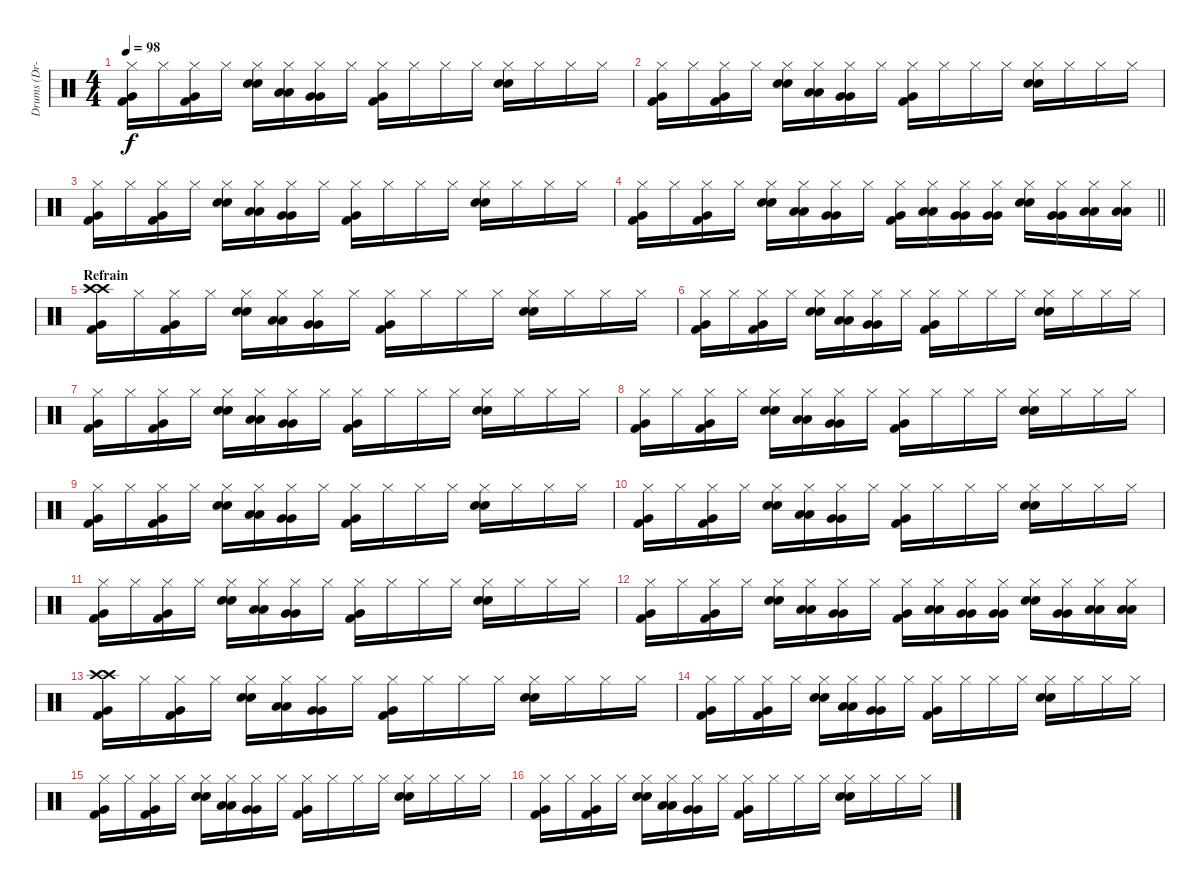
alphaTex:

\track ("Drums (Dr-0)" "Drums (Dr-") {instrument percussion}
\staff {score}
\articulation defaults
\ts (4 4)
\tempo 98
\clef neutral
\ks c
("Hi-Hat (closed)" "Very Low Tom (hit)" "Kick (hit) 2").16{dy f} "Hi-Hat (closed)".16 ("Hi-Hat (closed)" "Very Low Tom (hit)" "Kick (hit) 2").16 "Hi-Hat (closed)".16 ("Hi-Hat (closed)" "Electric Snare (hit)" "Snare (hit) 2").16 ("Hi-Hat (closed)" "Low Tom (hit)" "Low Tom (hit)").16 ("Hi-Hat (closed)" "Very Low Tom (hit)" "Very Low Tom (hit)").16 "Hi-Hat (closed)".16 ("Hi-Hat (closed)" "Very Low Tom (hit)" "Kick (hit) 2").16 "Hi-Hat (closed)".16 "Hi-Hat (closed)".16 "Hi-Hat (closed)".16 ("Hi-Hat (closed)" "Electric Snare (hit)" "Snare (hit) 2").16 "Hi-Hat (closed)".16 "Hi-Hat (closed)".16 "Hi-Hat (closed)".16 |
("Hi-Hat (closed)" "Very Low Tom (hit)" "Kick (hit) 2").16 "Hi-Hat (closed)".16 ("Hi-Hat (closed)" "Very Low Tom (hit)" "Kick (hit) 2").16 "Hi-Hat (closed)".16 ("Hi-Hat (closed)" "Electric Snare (hit)" "Snare (hit) 2").16 ("Hi-Hat (closed)" "Low Tom (hit)" "Low Tom (hit)").16 ("Hi-Hat (closed)" "Very Low Tom (hit)" "Very Low Tom (hit)").16 "Hi-Hat (closed)".16 ("Hi-Hat (closed)" "Very Low Tom (hit)" "Kick (hit) 2").16 "Hi-Hat (closed)".16 "Hi-Hat (closed)".16 "Hi-Hat (closed)".16 ("Hi-Hat (closed)" "Electric Snare (hit)" "Snare (hit) 2").16 "Hi-Hat (closed)".16 "Hi-Hat (closed)".16 "Hi-Hat (closed)".16 |
("Hi-Hat (closed)" "Very Low Tom (hit)" "Kick (hit) 2").16 "Hi-Hat (closed)".16 ("Hi-Hat (closed)" "Very Low Tom (hit)" "Kick (hit) 2").16 "Hi-Hat (closed)".16 ("Hi-Hat (closed)" "Electric Snare (hit)" "Snare (hit) 2").16 ("Hi-Hat (closed)" "Low Tom (hit)" "Low Tom (hit)").16 ("Hi-Hat (closed)" "Very Low Tom (hit)" "Very Low Tom (hit)").16 "Hi-Hat (closed)".16 ("Hi-Hat (closed)" "Very Low Tom (hit)" "Kick (hit) 2").16 "Hi-Hat (closed)".16 "Hi-Hat (closed)".16 "Hi-Hat (closed)".16 ("Hi-Hat (closed)" "Electric Snare (hit)" "Snare (hit) 2").16 "Hi-Hat (closed)".16 "Hi-Hat (closed)".16 "Hi-Hat (closed)".16 |
\barLineRight lightlight
("Hi-Hat (closed)" "Very Low Tom (hit)" "Kick (hit) 2").16 "Hi-Hat (closed)".16 ("Hi-Hat (closed)" "Very Low Tom (hit)" "Kick (hit) 2").16 "Hi-Hat (closed)".16 ("Hi-Hat (closed)" "Electric Snare (hit)" "Snare (hit) 2").16 ("Hi-Hat (closed)" "Low Tom (hit)" "Low Tom (hit)").16 ("Hi-Hat (closed)" "Very Low Tom (hit)" "Very Low Tom (hit)").16 "Hi-Hat (closed)".16 ("Hi-Hat (closed)" "Very Low Tom (hit)" "Kick (hit) 2").16 ("Hi-Hat (closed)" "Low Tom (hit)" "Low Tom (hit)").16 ("Hi-Hat (closed)" "Very Low Tom (hit)" "Very Low Tom (hit)").16 ("Hi-Hat (closed)" "Very Low Tom (hit)" "Very Low Tom (hit)").16 ("Hi-Hat (closed)" "Electric Snare (hit)" "Snare (hit) 2").16 ("Hi-Hat (closed)" "Very Low Tom (hit)" "Very Low Tom (hit)").16 ("Hi-Hat (closed)" "Low Floor Tom (hit)" "Low Floor Tom (hit)").16 ("Hi-Hat (closed)" "Low Floor Tom (hit)" "Low Floor Tom (hit)").16 |
\section ("" "Refrain")
("Crash high (hit)" "Crash high (hit)" "Very Low Tom (hit)" "Kick (hit) 2").16 "Hi-Hat (closed)".16 ("Hi-Hat (closed)" "Very Low Tom (hit)" "Kick (hit) 2").16 "Hi-Hat (closed)".16 ("Hi-Hat (closed)" "Electric Snare (hit)" "Snare (hit) 2").16 ("Hi-Hat (closed)" "Low Tom (hit)" "Low Tom (hit)").16 ("Hi-Hat (closed)" "Very Low Tom (hit)" "Very Low Tom (hit)").16 "Hi-Hat (closed)".16 ("Hi-Hat (closed)" "Very Low Tom (hit)" "Kick (hit) 2").16 "Hi-Hat (closed)".16 "Hi-Hat (closed)".16 "Hi-Hat (closed)".16 ("Hi-Hat (closed)" "Electric Snare (hit)" "Snare (hit) 2").16 "Hi-Hat (closed)".16 "Hi-Hat (closed)".16 "Hi-Hat (closed)".16 |
("Hi-Hat (closed)" "Very Low Tom (hit)" "Kick (hit) 2").16 "Hi-Hat (closed)".16 ("Hi-Hat (closed)" "Very Low Tom (hit)" "Kick (hit) 2").16 "Hi-Hat (closed)".16 ("Hi-Hat (closed)" "Electric Snare (hit)" "Snare (hit) 2").16 ("Hi-Hat (closed)" "Low Tom (hit)" "Low Tom (hit)").16 ("Hi-Hat (closed)" "Very Low Tom (hit)" "Very Low Tom (hit)").16 "Hi-Hat (closed)".16 ("Hi-Hat (closed)" "Very Low Tom (hit)" "Kick (hit) 2").16 "Hi-Hat (closed)".16 "Hi-Hat (closed)".16 "Hi-Hat (closed)".16 ("Hi-Hat (closed)" "Electric Snare (hit)" "Snare (hit) 2").16 "Hi-Hat (closed)".16 "Hi-Hat (closed)".16 "Hi-Hat (closed)".16 |
("Hi-Hat (closed)" "Very Low Tom (hit)" "Kick (hit) 2").16 "Hi-Hat (closed)".16 ("Hi-Hat (closed)" "Very Low Tom (hit)" "Kick (hit) 2").16 "Hi-Hat (closed)".16 ("Hi-Hat (closed)" "Electric Snare (hit)" "Snare (hit) 2").16 ("Hi-Hat (closed)" "Low Tom (hit)" "Low Tom (hit)").16 ("Hi-Hat (closed)" "Very Low Tom (hit)" "Very Low Tom (hit)").16 "Hi-Hat (closed)".16 ("Hi-Hat (closed)" "Very Low Tom (hit)" "Kick (hit) 2").16 "Hi-Hat (closed)".16 "Hi-Hat (closed)".16 "Hi-Hat (closed)".16 ("Hi-Hat (closed)" "Electric Snare (hit)" "Snare (hit) 2").16 "Hi-Hat (closed)".16 "Hi-Hat (closed)".16 "Hi-Hat (closed)".16 |
("Hi-Hat (closed)" "Very Low Tom (hit)" "Kick (hit) 2").16 "Hi-Hat (closed)".16 ("Hi-Hat (closed)" "Very Low Tom (hit)" "Kick (hit) 2").16 "Hi-Hat (closed)".16 ("Hi-Hat (closed)" "Electric Snare (hit)" "Snare (hit) 2").16 ("Hi-Hat (closed)" "Low Tom (hit)" "Low Tom (hit)").16 ("Hi-Hat (closed)" "Very Low Tom (hit)" "Very Low Tom (hit)").16 "Hi-Hat (closed)".16 ("Hi-Hat (closed)" "Very Low Tom (hit)" "Kick (hit) 2").16 "Hi-Hat (closed)".16 "Hi-Hat (closed)".16 "Hi-Hat (closed)".16 ("Hi-Hat (closed)" "Electric Snare (hit)" "Snare (hit) 2").16 "Hi-Hat (closed)".16 "Hi-Hat (closed)".16 "Hi-Hat (closed)".16 |
("Hi-Hat (closed)" "Very Low Tom (hit)" "Kick (hit) 2").16 "Hi-Hat (closed)".16 ("Hi-Hat (closed)" "Very Low Tom (hit)" "Kick (hit) 2").16 "Hi-Hat (closed)".16 ("Hi-Hat (closed)" "Electric Snare (hit)" "Snare (hit) 2").16 ("Hi-Hat (closed)" "Low Tom (hit)" "Low Tom (hit)").16 ("Hi-Hat (closed)" "Very Low Tom (hit)" "Very Low Tom (hit)").16 "Hi-Hat (closed)".16 ("Hi-Hat (closed)" "Very Low Tom (hit)" "Kick (hit) 2").16 "Hi-Hat (closed)".16 "Hi-Hat (closed)".16 "Hi-Hat (closed)".16 ("Hi-Hat (closed)" "Electric Snare (hit)" "Snare (hit) 2").16 "Hi-Hat (closed)".16 "Hi-Hat (closed)".16 "Hi-Hat (closed)".16 |
("Hi-Hat (closed)" "Very Low Tom (hit)" "Kick (hit) 2").16 "Hi-Hat (closed)".16 ("Hi-Hat (closed)" "Very Low Tom (hit)" "Kick (hit) 2").16 "Hi-Hat (closed)".16 ("Hi-Hat (closed)" "Electric Snare (hit)" "Snare (hit) 2").16 ("Hi-Hat (closed)" "Low Tom (hit)" "Low Tom (hit)").16 ("Hi-Hat (closed)" "Very Low Tom (hit)" "Very Low Tom (hit)").16 "Hi-Hat (closed)".16 ("Hi-Hat (closed)" "Very Low Tom (hit)" "Kick (hit) 2").16 "Hi-Hat (closed)".16 "Hi-Hat (closed)".16 "Hi-Hat (closed)".16 ("Hi-Hat (closed)" "Electric Snare (hit)" "Snare (hit) 2").16 "Hi-Hat (closed)".16 "Hi-Hat (closed)".16 "Hi-Hat (closed)".16 |
("Hi-Hat (closed)" "Very Low Tom (hit)" "Kick (hit) 2").16 "Hi-Hat (closed)".16 ("Hi-Hat (closed)" "Very Low Tom (hit)" "Kick (hit) 2").16 "Hi-Hat (closed)".16 ("Hi-Hat (closed)" "Electric Snare (hit)" "Snare (hit) 2").16 ("Hi-Hat (closed)" "Low Tom (hit)" "Low Tom (hit)").16 ("Hi-Hat (closed)" "Very Low Tom (hit)" "Very Low Tom (hit)").16 "Hi-Hat (closed)".16 ("Hi-Hat (closed)" "Very Low Tom (hit)" "Kick (hit) 2").16 "Hi-Hat (closed)".16 "Hi-Hat (closed)".16 "Hi-Hat (closed)".16 ("Hi-Hat (closed)" "Electric Snare (hit)" "Snare (hit) 2").16 "Hi-Hat (closed)".16 "Hi-Hat (closed)".16 "Hi-Hat (closed)".16 |
("Hi-Hat (closed)" "Very Low Tom (hit)" "Kick (hit) 2").16 "Hi-Hat (closed)".16 ("Hi-Hat (closed)" "Very Low Tom (hit)" "Kick (hit) 2").16 "Hi-Hat (closed)".16 ("Hi-Hat (closed)" "Electric Snare (hit)" "Snare (hit) 2").16 ("Hi-Hat (closed)" "Low Tom (hit)" "Low Tom (hit)").16 ("Hi-Hat (closed)" "Very Low Tom (hit)" "Very Low Tom (hit)").16 "Hi-Hat (closed)".16 ("Hi-Hat (closed)" "Very Low Tom (hit)" "Kick (hit) 2").16 ("Hi-Hat (closed)" "Low Tom (hit)" "Low Tom (hit)").16 ("Hi-Hat (closed)" "Very Low Tom (hit)" "Very Low Tom (hit)").16 ("Hi-Hat (closed)" "Very Low Tom (hit)" "Very Low Tom (hit)").16 ("Hi-Hat (closed)" "Electric Snare (hit)" "Snare (hit) 2").16 ("Hi-Hat (closed)" "Very Low Tom (hit)" "Very Low Tom (hit)").16 ("Hi-Hat (closed)" "Low Floor Tom (hit)" "Low Floor Tom (hit)").16 ("Hi-Hat (closed)" "Low Floor Tom (hit)" "Low Floor Tom (hit)").16 |
("Crash high (hit)" "Crash high (hit)" "Very Low Tom (hit)" "Kick (hit) 2").16 "Hi-Hat (closed)".16 ("Hi-Hat (closed)" "Very Low Tom (hit)" "Kick (hit) 2").16 "Hi-Hat (closed)".16 ("Hi-Hat (closed)" "Electric Snare (hit)" "Snare (hit) 2").16 ("Hi-Hat (closed)" "Low Tom (hit)" "Low Tom (hit)").16 ("Hi-Hat (closed)" "Very Low Tom (hit)" "Very Low Tom (hit)").16 "Hi-Hat (closed)".16 ("Hi-Hat (closed)" "Very Low Tom (hit)" "Kick (hit) 2").16 "Hi-Hat (closed)".16 "Hi-Hat (closed)".16 "Hi-Hat (closed)".16 ("Hi-Hat (closed)" "Electric Snare (hit)" "Snare (hit) 2").16 "Hi-Hat (closed)".16 "Hi-Hat (closed)".16 "Hi-Hat (closed)".16 |
("Hi-Hat (closed)" "Very Low Tom (hit)" "Kick (hit) 2").16 "Hi-Hat (closed)".16 ("Hi-Hat (closed)" "Very Low Tom (hit)" "Kick (hit) 2").16 "Hi-Hat (closed)".16 ("Hi-Hat (closed)" "Electric Snare (hit)" "Snare (hit) 2").16 ("Hi-Hat (closed)" "Low Tom (hit)" "Low Tom (hit)").16 ("Hi-Hat (closed)" "Very Low Tom (hit)" "Very Low Tom (hit)").16 "Hi-Hat (closed)".16 ("Hi-Hat (closed)" "Very Low Tom (hit)" "Kick (hit) 2").16 "Hi-Hat (closed)".16 "Hi-Hat (closed)".16 "Hi-Hat (closed)".16 ("Hi-Hat (closed)" "Electric Snare (hit)" "Snare (hit) 2").16 "Hi-Hat (closed)".16 "Hi-Hat (closed)".16 "Hi-Hat (closed)".16 |
("Hi-Hat (closed)" "Very Low Tom (hit)" "Kick (hit) 2").16 "Hi-Hat (closed)".16 ("Hi-Hat (closed)" "Very Low Tom (hit)" "Kick (hit) 2").16 "Hi-Hat (closed)".16 ("Hi-Hat (closed)" "Electric Snare (hit)" "Snare (hit) 2").16 ("Hi-Hat (closed)" "Low Tom (hit)" "Low Tom (hit)").16 ("Hi-Hat (closed)" "Very Low Tom (hit)" "Very Low Tom (hit)").16 "Hi-Hat (closed)".16 ("Hi-Hat (closed)" "Very Low Tom (hit)" "Kick (hit) 2").16 "Hi-Hat (closed)".16 "Hi-Hat (closed)".16 "Hi-Hat (closed)".16 ("Hi-Hat (closed)" "Electric Snare (hit)" "Snare (hit) 2").16 "Hi-Hat (closed)".16 "Hi-Hat (closed)".16 "Hi-Hat (closed)".16 |
("Hi-Hat (closed)" "Very Low Tom (hit)" "Kick (hit) 2").16 "Hi-Hat (closed)".16 ("Hi-Hat (closed)" "Very Low Tom (hit)" "Kick (hit) 2").16 "Hi-Hat (closed)".16 ("Hi-Hat (closed)" "Electric Snare (hit)" "Snare (hit) 2").16 ("Hi-Hat (closed)" "Low Tom (hit)" "Low Tom (hit)").16 ("Hi-Hat (closed)" "Very Low Tom (hit)" "Very Low Tom (hit)").16 "Hi-Hat (closed)".16 ("Hi-Hat (closed)" "Very Low Tom (hit)" "Kick (hit) 2").16 "Hi-Hat (closed)".16 "Hi-Hat (closed)".16 "Hi-Hat (closed)".16 ("Hi-Hat (closed)" "Electric Snare (hit)" "Snare (hit) 2").16 "Hi-Hat (closed)".16 "Hi-Hat (closed)".16 "Hi-Hat (closed)".16
